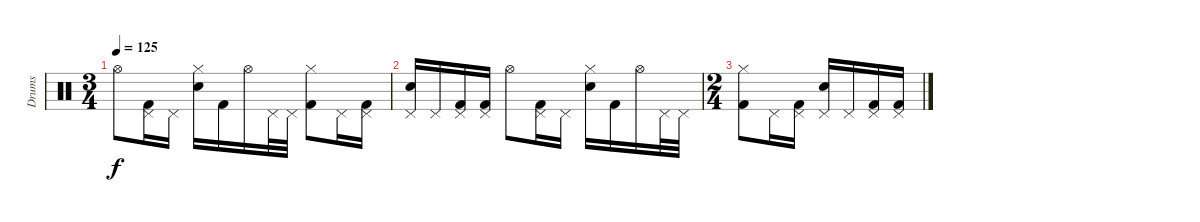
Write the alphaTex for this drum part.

\track ("Drums" "Drums") {instrument percussion}
\staff {score}
\articulation defaults
\ts (3 4)
\tempo 125
\clef neutral
\ks c "Hi-Hat (open)".8{dy f}
("Pedal Hi-Hat (hit)" "Kick (hit) 2").16 "Pedal Hi-Hat (hit)".16 ("Hi-Hat (closed)" "Snare (hit) 2").16 "Kick (hit) 2".16 "Hi-Hat (open)".16 "Pedal Hi-Hat (hit)".32 "Pedal Hi-Hat (hit)".32 ("Hi-Hat (closed)" "Kick (hit) 2").8 "Pedal Hi-Hat (hit)".16 ("Pedal Hi-Hat (hit)" "Kick (hit) 2").16 |
("Pedal Hi-Hat (hit)" "Snare (hit) 2").16 "Pedal Hi-Hat (hit)".16 ("Pedal Hi-Hat (hit)" "Kick (hit) 2").16 ("Pedal Hi-Hat (hit)" "Kick (hit) 2").16 "Hi-Hat (open)".8 ("Pedal Hi-Hat (hit)" "Kick (hit) 2").16 "Pedal Hi-Hat (hit)".16 ("Hi-Hat (closed)" "Snare (hit) 2").16 "Kick (hit) 2".16 "Hi-Hat (open)".16 "Pedal Hi-Hat (hit)".32 "Pedal Hi-Hat (hit)".32 |
\ts (2 4)
("Hi-Hat (closed)" "Kick (hit) 2").8 "Pedal Hi-Hat (hit)".16 ("Pedal Hi-Hat (hit)" "Kick (hit) 2").16 ("Pedal Hi-Hat (hit)" "Snare (hit) 2").16 "Pedal Hi-Hat (hit)".16 ("Pedal Hi-Hat (hit)" "Kick (hit) 2").16 ("Pedal Hi-Hat (hit)" "Kick (hit) 2").16
